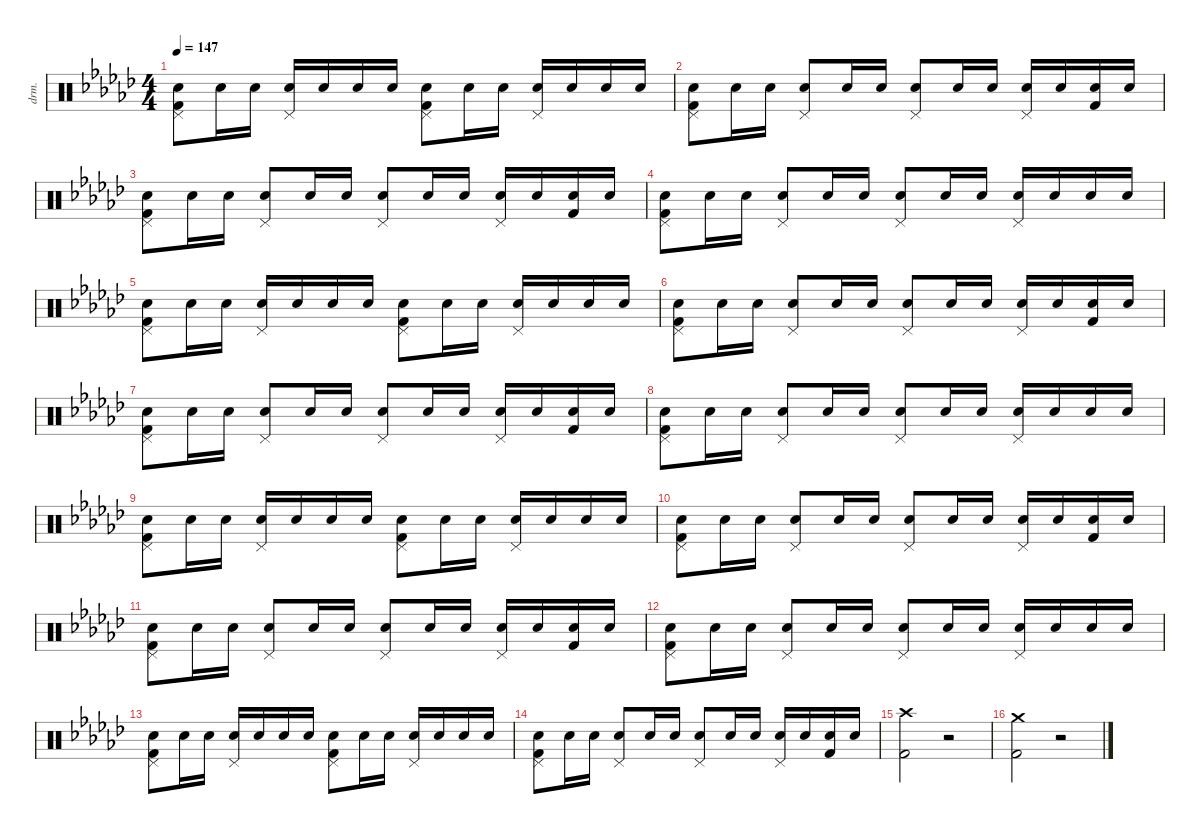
\defaultSystemsLayout 8
\hideDynamics
\bracketExtendMode nobrackets
\otherSystemsTrackNameOrientation horizontal
\track ("Drums" "drm.") {defaultSystemsLayout 4 instrument percussion}
\staff {score}
\articulation defaults
\ts (4 4)
\tempo 147
\clef neutral
\ks ebminor
("Pedal Hi-Hat (hit)"{acc forcenatural} "Kick (hit) 2"{acc forcenatural} "Snare (hit) 2"{acc forcenatural}).8{dy f beam Down} "Snare (hit) 2"{acc forcenatural}.16{dy mf beam Down} "Snare (hit) 2"{acc forcenatural}.16{beam Down} ("Pedal Hi-Hat (hit)"{acc forcenatural} "Snare (hit) 2"{acc forcenatural}).16{dy f beam Up} "Snare (hit) 2"{acc forcenatural}.16{dy mf beam Up} "Snare (hit) 2"{acc forcenatural}.16{beam Up} "Snare (hit) 2"{acc forcenatural}.16{beam Up} ("Pedal Hi-Hat (hit)"{acc forcenatural} "Kick (hit) 2"{acc forcenatural} "Snare (hit) 2"{acc forcenatural}).8{dy f beam Down} "Snare (hit) 2"{acc forcenatural}.16{dy mf beam Down} "Snare (hit) 2"{acc forcenatural}.16{beam Down} ("Pedal Hi-Hat (hit)"{acc forcenatural} "Snare (hit) 2"{acc forcenatural}).16{dy f beam Up} "Snare (hit) 2"{acc forcenatural}.16{dy mf beam Up} "Snare (hit) 2"{acc forcenatural}.16{beam Up} "Snare (hit) 2"{acc forcenatural}.16{beam Up} |
("Pedal Hi-Hat (hit)"{acc forcenatural} "Kick (hit) 2"{acc forcenatural} "Snare (hit) 2"{acc forcenatural}).8{dy f beam Down} "Snare (hit) 2"{acc forcenatural}.16{dy mf beam Down} "Snare (hit) 2"{acc forcenatural}.16{beam Down} ("Pedal Hi-Hat (hit)"{acc forcenatural} "Snare (hit) 2"{acc forcenatural}).8{dy f beam Up} "Snare (hit) 2"{acc forcenatural}.16{dy mf beam Up} "Snare (hit) 2"{acc forcenatural}.16{beam Up} ("Pedal Hi-Hat (hit)"{acc forcenatural} "Snare (hit) 2"{acc forcenatural}).8{dy f beam Up} "Snare (hit) 2"{acc forcenatural}.16{dy mf beam Up} "Snare (hit) 2"{acc forcenatural}.16{beam Up} ("Pedal Hi-Hat (hit)"{acc forcenatural} "Snare (hit) 2"{acc forcenatural}).16{dy f beam Up} "Snare (hit) 2"{acc forcenatural}.16{dy mf beam Up} ("Kick (hit) 2"{acc forcenatural} "Snare (hit) 2"{acc forcenatural}).16{dy f beam Up} "Snare (hit) 2"{acc forcenatural}.16{dy mf beam Up} |
("Pedal Hi-Hat (hit)"{acc forcenatural} "Kick (hit) 2"{acc forcenatural} "Snare (hit) 2"{acc forcenatural}).8{dy f beam Down} "Snare (hit) 2"{acc forcenatural}.16{dy mf beam Down} "Snare (hit) 2"{acc forcenatural}.16{beam Down} ("Pedal Hi-Hat (hit)"{acc forcenatural} "Snare (hit) 2"{acc forcenatural}).8{dy f beam Up} "Snare (hit) 2"{acc forcenatural}.16{dy mf beam Up} "Snare (hit) 2"{acc forcenatural}.16{beam Up} ("Pedal Hi-Hat (hit)"{acc forcenatural} "Snare (hit) 2"{acc forcenatural}).8{dy f beam Up} "Snare (hit) 2"{acc forcenatural}.16{dy mf beam Up} "Snare (hit) 2"{acc forcenatural}.16{beam Up} ("Pedal Hi-Hat (hit)"{acc forcenatural} "Snare (hit) 2"{acc forcenatural}).16{dy f beam Up} "Snare (hit) 2"{acc forcenatural}.16{dy mf beam Up} ("Kick (hit) 2"{acc forcenatural} "Snare (hit) 2"{acc forcenatural}).16{dy f beam Up} "Snare (hit) 2"{acc forcenatural}.16{dy mf beam Up} |
("Pedal Hi-Hat (hit)"{acc forcenatural} "Kick (hit) 2"{acc forcenatural} "Snare (hit) 2"{acc forcenatural}).8{dy f beam Down} "Snare (hit) 2"{acc forcenatural}.16{dy mf beam Down} "Snare (hit) 2"{acc forcenatural}.16{beam Down} ("Pedal Hi-Hat (hit)"{acc forcenatural} "Snare (hit) 2"{acc forcenatural}).8{dy f beam Up} "Snare (hit) 2"{acc forcenatural}.16{dy mf beam Up} "Snare (hit) 2"{acc forcenatural}.16{beam Up} ("Pedal Hi-Hat (hit)"{acc forcenatural} "Snare (hit) 2"{acc forcenatural}).8{dy f beam Up} "Snare (hit) 2"{acc forcenatural}.16{dy mf beam Up} "Snare (hit) 2"{acc forcenatural}.16{beam Up} ("Pedal Hi-Hat (hit)"{acc forcenatural} "Snare (hit) 2"{acc forcenatural}).16{dy f beam Up} "Snare (hit) 2"{acc forcenatural}.16{dy mf beam Up} "Snare (hit) 2"{acc forcenatural}.16{beam Up} "Snare (hit) 2"{acc forcenatural}.16{beam Up} |
("Pedal Hi-Hat (hit)"{acc forcenatural} "Kick (hit) 2"{acc forcenatural} "Snare (hit) 2"{acc forcenatural}).8{dy f beam Down} "Snare (hit) 2"{acc forcenatural}.16{dy mf beam Down} "Snare (hit) 2"{acc forcenatural}.16{beam Down} ("Pedal Hi-Hat (hit)"{acc forcenatural} "Snare (hit) 2"{acc forcenatural}).16{dy f beam Up} "Snare (hit) 2"{acc forcenatural}.16{dy mf beam Up} "Snare (hit) 2"{acc forcenatural}.16{beam Up} "Snare (hit) 2"{acc forcenatural}.16{beam Up} ("Pedal Hi-Hat (hit)"{acc forcenatural} "Kick (hit) 2"{acc forcenatural} "Snare (hit) 2"{acc forcenatural}).8{dy f beam Down} "Snare (hit) 2"{acc forcenatural}.16{dy mf beam Down} "Snare (hit) 2"{acc forcenatural}.16{beam Down} ("Pedal Hi-Hat (hit)"{acc forcenatural} "Snare (hit) 2"{acc forcenatural}).16{dy f beam Up} "Snare (hit) 2"{acc forcenatural}.16{dy mf beam Up} "Snare (hit) 2"{acc forcenatural}.16{beam Up} "Snare (hit) 2"{acc forcenatural}.16{beam Up} |
("Pedal Hi-Hat (hit)"{acc forcenatural} "Kick (hit) 2"{acc forcenatural} "Snare (hit) 2"{acc forcenatural}).8{dy f beam Down} "Snare (hit) 2"{acc forcenatural}.16{dy mf beam Down} "Snare (hit) 2"{acc forcenatural}.16{beam Down} ("Pedal Hi-Hat (hit)"{acc forcenatural} "Snare (hit) 2"{acc forcenatural}).8{dy f beam Up} "Snare (hit) 2"{acc forcenatural}.16{dy mf beam Up} "Snare (hit) 2"{acc forcenatural}.16{beam Up} ("Pedal Hi-Hat (hit)"{acc forcenatural} "Snare (hit) 2"{acc forcenatural}).8{dy f beam Up} "Snare (hit) 2"{acc forcenatural}.16{dy mf beam Up} "Snare (hit) 2"{acc forcenatural}.16{beam Up} ("Pedal Hi-Hat (hit)"{acc forcenatural} "Snare (hit) 2"{acc forcenatural}).16{dy f beam Up} "Snare (hit) 2"{acc forcenatural}.16{dy mf beam Up} ("Kick (hit) 2"{acc forcenatural} "Snare (hit) 2"{acc forcenatural}).16{dy f beam Up} "Snare (hit) 2"{acc forcenatural}.16{dy mf beam Up} |
("Pedal Hi-Hat (hit)"{acc forcenatural} "Kick (hit) 2"{acc forcenatural} "Snare (hit) 2"{acc forcenatural}).8{dy f beam Down} "Snare (hit) 2"{acc forcenatural}.16{dy mf beam Down} "Snare (hit) 2"{acc forcenatural}.16{beam Down} ("Pedal Hi-Hat (hit)"{acc forcenatural} "Snare (hit) 2"{acc forcenatural}).8{dy f beam Up} "Snare (hit) 2"{acc forcenatural}.16{dy mf beam Up} "Snare (hit) 2"{acc forcenatural}.16{beam Up} ("Pedal Hi-Hat (hit)"{acc forcenatural} "Snare (hit) 2"{acc forcenatural}).8{dy f beam Up} "Snare (hit) 2"{acc forcenatural}.16{dy mf beam Up} "Snare (hit) 2"{acc forcenatural}.16{beam Up} ("Pedal Hi-Hat (hit)"{acc forcenatural} "Snare (hit) 2"{acc forcenatural}).16{dy f beam Up} "Snare (hit) 2"{acc forcenatural}.16{dy mf beam Up} ("Kick (hit) 2"{acc forcenatural} "Snare (hit) 2"{acc forcenatural}).16{dy f beam Up} "Snare (hit) 2"{acc forcenatural}.16{dy mf beam Up} |
("Pedal Hi-Hat (hit)"{acc forcenatural} "Kick (hit) 2"{acc forcenatural} "Snare (hit) 2"{acc forcenatural}).8{dy f beam Down} "Snare (hit) 2"{acc forcenatural}.16{dy mf beam Down} "Snare (hit) 2"{acc forcenatural}.16{beam Down} ("Pedal Hi-Hat (hit)"{acc forcenatural} "Snare (hit) 2"{acc forcenatural}).8{dy f beam Up} "Snare (hit) 2"{acc forcenatural}.16{dy mf beam Up} "Snare (hit) 2"{acc forcenatural}.16{beam Up} ("Pedal Hi-Hat (hit)"{acc forcenatural} "Snare (hit) 2"{acc forcenatural}).8{dy f beam Up} "Snare (hit) 2"{acc forcenatural}.16{dy mf beam Up} "Snare (hit) 2"{acc forcenatural}.16{beam Up} ("Pedal Hi-Hat (hit)"{acc forcenatural} "Snare (hit) 2"{acc forcenatural}).16{dy f beam Up} "Snare (hit) 2"{acc forcenatural}.16{dy mf beam Up} "Snare (hit) 2"{acc forcenatural}.16{beam Up} "Snare (hit) 2"{acc forcenatural}.16{beam Up} |
("Pedal Hi-Hat (hit)"{acc forcenatural} "Kick (hit) 2"{acc forcenatural} "Snare (hit) 2"{acc forcenatural}).8{dy f beam Down} "Snare (hit) 2"{acc forcenatural}.16{dy mf beam Down} "Snare (hit) 2"{acc forcenatural}.16{beam Down} ("Pedal Hi-Hat (hit)"{acc forcenatural} "Snare (hit) 2"{acc forcenatural}).16{dy f beam Up} "Snare (hit) 2"{acc forcenatural}.16{dy mf beam Up} "Snare (hit) 2"{acc forcenatural}.16{beam Up} "Snare (hit) 2"{acc forcenatural}.16{beam Up} ("Pedal Hi-Hat (hit)"{acc forcenatural} "Kick (hit) 2"{acc forcenatural} "Snare (hit) 2"{acc forcenatural}).8{dy f beam Down} "Snare (hit) 2"{acc forcenatural}.16{dy mf beam Down} "Snare (hit) 2"{acc forcenatural}.16{beam Down} ("Pedal Hi-Hat (hit)"{acc forcenatural} "Snare (hit) 2"{acc forcenatural}).16{dy f beam Up} "Snare (hit) 2"{acc forcenatural}.16{dy mf beam Up} "Snare (hit) 2"{acc forcenatural}.16{beam Up} "Snare (hit) 2"{acc forcenatural}.16{beam Up} |
("Pedal Hi-Hat (hit)"{acc forcenatural} "Kick (hit) 2"{acc forcenatural} "Snare (hit) 2"{acc forcenatural}).8{dy f beam Down} "Snare (hit) 2"{acc forcenatural}.16{dy mf beam Down} "Snare (hit) 2"{acc forcenatural}.16{beam Down} ("Pedal Hi-Hat (hit)"{acc forcenatural} "Snare (hit) 2"{acc forcenatural}).8{dy f beam Up} "Snare (hit) 2"{acc forcenatural}.16{dy mf beam Up} "Snare (hit) 2"{acc forcenatural}.16{beam Up} ("Pedal Hi-Hat (hit)"{acc forcenatural} "Snare (hit) 2"{acc forcenatural}).8{dy f beam Up} "Snare (hit) 2"{acc forcenatural}.16{dy mf beam Up} "Snare (hit) 2"{acc forcenatural}.16{beam Up} ("Pedal Hi-Hat (hit)"{acc forcenatural} "Snare (hit) 2"{acc forcenatural}).16{dy f beam Up} "Snare (hit) 2"{acc forcenatural}.16{dy mf beam Up} ("Kick (hit) 2"{acc forcenatural} "Snare (hit) 2"{acc forcenatural}).16{dy f beam Up} "Snare (hit) 2"{acc forcenatural}.16{dy mf beam Up} |
("Pedal Hi-Hat (hit)"{acc forcenatural} "Kick (hit) 2"{acc forcenatural} "Snare (hit) 2"{acc forcenatural}).8{dy f beam Down} "Snare (hit) 2"{acc forcenatural}.16{dy mf beam Down} "Snare (hit) 2"{acc forcenatural}.16{beam Down} ("Pedal Hi-Hat (hit)"{acc forcenatural} "Snare (hit) 2"{acc forcenatural}).8{dy f beam Up} "Snare (hit) 2"{acc forcenatural}.16{dy mf beam Up} "Snare (hit) 2"{acc forcenatural}.16{beam Up} ("Pedal Hi-Hat (hit)"{acc forcenatural} "Snare (hit) 2"{acc forcenatural}).8{dy f beam Up} "Snare (hit) 2"{acc forcenatural}.16{dy mf beam Up} "Snare (hit) 2"{acc forcenatural}.16{beam Up} ("Pedal Hi-Hat (hit)"{acc forcenatural} "Snare (hit) 2"{acc forcenatural}).16{dy f beam Up} "Snare (hit) 2"{acc forcenatural}.16{dy mf beam Up} ("Kick (hit) 2"{acc forcenatural} "Snare (hit) 2"{acc forcenatural}).16{dy f beam Up} "Snare (hit) 2"{acc forcenatural}.16{dy mf beam Up} |
("Pedal Hi-Hat (hit)"{acc forcenatural} "Kick (hit) 2"{acc forcenatural} "Snare (hit) 2"{acc forcenatural}).8{dy f beam Down} "Snare (hit) 2"{acc forcenatural}.16{dy mf beam Down} "Snare (hit) 2"{acc forcenatural}.16{beam Down} ("Pedal Hi-Hat (hit)"{acc forcenatural} "Snare (hit) 2"{acc forcenatural}).8{dy f beam Up} "Snare (hit) 2"{acc forcenatural}.16{dy mf beam Up} "Snare (hit) 2"{acc forcenatural}.16{beam Up} ("Pedal Hi-Hat (hit)"{acc forcenatural} "Snare (hit) 2"{acc forcenatural}).8{dy f beam Up} "Snare (hit) 2"{acc forcenatural}.16{dy mf beam Up} "Snare (hit) 2"{acc forcenatural}.16{beam Up} ("Pedal Hi-Hat (hit)"{acc forcenatural} "Snare (hit) 2"{acc forcenatural}).16{dy f beam Up} "Snare (hit) 2"{acc forcenatural}.16{dy mf beam Up} "Snare (hit) 2"{acc forcenatural}.16{beam Up} "Snare (hit) 2"{acc forcenatural}.16{beam Up} |
("Pedal Hi-Hat (hit)"{acc forcenatural} "Kick (hit) 2"{acc forcenatural} "Snare (hit) 2"{acc forcenatural}).8{dy f beam Down} "Snare (hit) 2"{acc forcenatural}.16{dy mf beam Down} "Snare (hit) 2"{acc forcenatural}.16{beam Down} ("Pedal Hi-Hat (hit)"{acc forcenatural} "Snare (hit) 2"{acc forcenatural}).16{dy f beam Up} "Snare (hit) 2"{acc forcenatural}.16{dy mf beam Up} "Snare (hit) 2"{acc forcenatural}.16{beam Up} "Snare (hit) 2"{acc forcenatural}.16{beam Up} ("Pedal Hi-Hat (hit)"{acc forcenatural} "Kick (hit) 2"{acc forcenatural} "Snare (hit) 2"{acc forcenatural}).8{dy f beam Down} "Snare (hit) 2"{acc forcenatural}.16{dy mf beam Down} "Snare (hit) 2"{acc forcenatural}.16{beam Down} ("Pedal Hi-Hat (hit)"{acc forcenatural} "Snare (hit) 2"{acc forcenatural}).16{dy f beam Up} "Snare (hit) 2"{acc forcenatural}.16{dy mf beam Up} "Snare (hit) 2"{acc forcenatural}.16{beam Up} "Snare (hit) 2"{acc forcenatural}.16{beam Up} |
("Pedal Hi-Hat (hit)"{acc forcenatural} "Kick (hit) 2"{acc forcenatural} "Snare (hit) 2"{acc forcenatural}).8{dy f beam Down} "Snare (hit) 2"{acc forcenatural}.16{dy mf beam Down} "Snare (hit) 2"{acc forcenatural}.16{beam Down} ("Pedal Hi-Hat (hit)"{acc forcenatural} "Snare (hit) 2"{acc forcenatural}).8{dy f beam Up} "Snare (hit) 2"{acc forcenatural}.16{dy mf beam Up} "Snare (hit) 2"{acc forcenatural}.16{beam Up} ("Pedal Hi-Hat (hit)"{acc forcenatural} "Snare (hit) 2"{acc forcenatural}).8{dy f beam Up} "Snare (hit) 2"{acc forcenatural}.16{dy mf beam Up} "Snare (hit) 2"{acc forcenatural}.16{beam Up} ("Pedal Hi-Hat (hit)"{acc forcenatural} "Snare (hit) 2"{acc forcenatural}).16{dy f beam Up} "Snare (hit) 2"{acc forcenatural}.16{dy mf beam Up} ("Kick (hit) 2"{acc forcenatural} "Snare (hit) 2"{acc forcenatural}).16{dy f beam Up} "Snare (hit) 2"{acc forcenatural}.16{dy mf beam Up} |
("Kick (hit) 2"{acc forcenatural} "Crash high (hit)"{acc forcenatural}).2{dy f beam Down} r.2{beam Down} |
("Kick (hit) 2"{acc forcenatural} "Crash medium (hit)"{acc forcenatural}).2{beam Down} r.2{beam Down}
